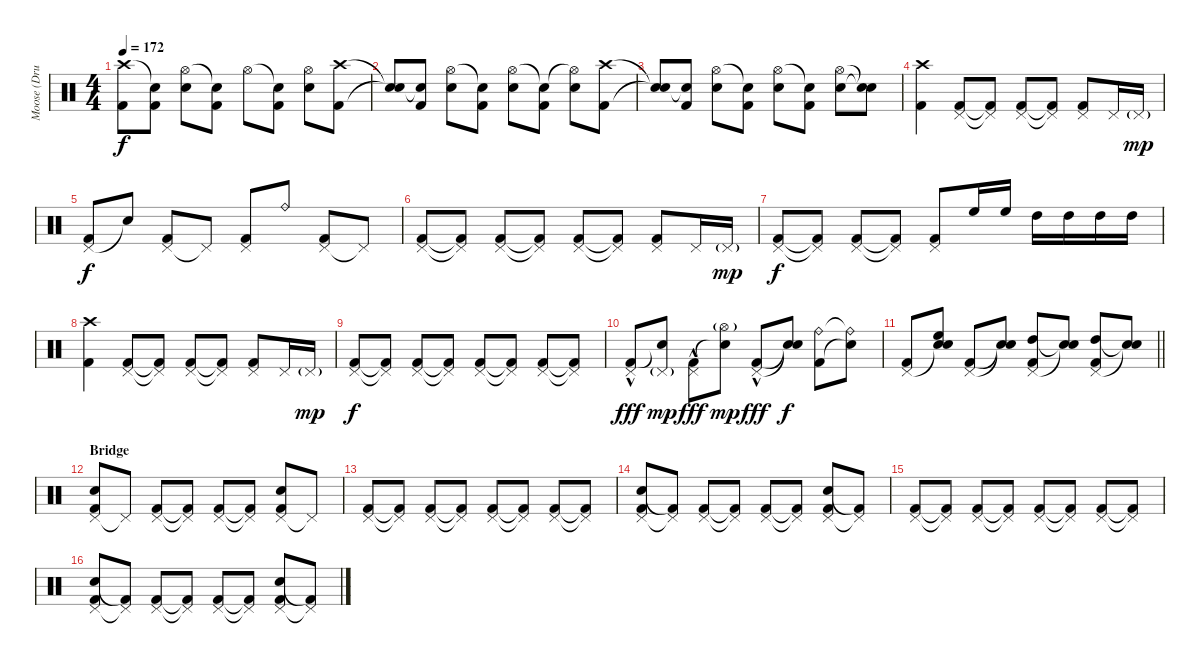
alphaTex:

\track ("Moose (Drums)" "Moose (Dru") {instrument percussion}
\staff {score}
\articulation defaults
\ts (4 4)
\tempo 172
\clef neutral
\ks c
("Crash high (hit)" "Kick (hit) 2").8{dy f} ("Snare (hit)"{t} "Kick (hit) 2").8 ("Hi-Hat (open)" "Electric Snare (hit)").8 ("Snare (hit)"{t} "Kick (hit) 2").8 "Hi-Hat (open)".8 ("Snare (hit)"{t} "Kick (hit) 2").8 ("Hi-Hat (open)" "Electric Snare (hit)").8 ("Crash high (hit)" "Kick (hit) 2").8 |
("Snare (hit)"{t} "Snare (hit)"{t}).8 ("Snare (hit)"{t} "Kick (hit) 2").8 ("Hi-Hat (open)" "Electric Snare (hit)").8 ("Snare (hit)"{t} "Kick (hit) 2").8 ("Hi-Hat (open)" "Electric Snare (hit)").8 ("Snare (hit)"{t} "Kick (hit) 2").8 ("Hi-Hat (open)"{t} "Electric Snare (hit)").8 ("Crash high (hit)" "Kick (hit) 2").8 |
("Snare (hit)"{t} "Snare (hit)"{t}).8 ("Snare (hit)"{t} "Kick (hit) 2").8 ("Hi-Hat (open)" "Electric Snare (hit)").8 ("Snare (hit)"{t} "Kick (hit) 2").8 ("Hi-Hat (open)" "Electric Snare (hit)").8 ("Snare (hit)"{t} "Kick (hit) 2").8 ("Hi-Hat (open)" "Electric Snare (hit)").8 ("Snare (hit)"{t} "Snare (hit)"{t}).8 |
("Crash high (hit)" "Kick (hit) 2").4 ("Pedal Hi-Hat (hit)" "Kick (hit) 2").8 ("Pedal Hi-Hat (hit)"{t} "Kick (hit) 2"{t}).8 ("Pedal Hi-Hat (hit)" "Kick (hit) 2").8 ("Pedal Hi-Hat (hit)"{t} "Kick (hit) 2"{t}).8 ("Pedal Hi-Hat (hit)" "Kick (hit) 2").8 "Pedal Hi-Hat (hit)".16 "Pedal Hi-Hat (hit)"{g}.16{dy mp} |
("Pedal Hi-Hat (hit)" "Kick (hit) 2").8{dy f} "Snare (hit)"{t}.8 ("Pedal Hi-Hat (hit)" "Kick (hit) 2").8 "Pedal Hi-Hat (hit)"{t}.8 ("Pedal Hi-Hat (hit)" "Kick (hit) 2").8 "Ride (bell)".8 ("Pedal Hi-Hat (hit)" "Kick (hit) 2").8 "Pedal Hi-Hat (hit)"{t}.8 |
("Pedal Hi-Hat (hit)" "Kick (hit) 2").8 ("Pedal Hi-Hat (hit)"{t} "Kick (hit) 2"{t}).8 ("Pedal Hi-Hat (hit)" "Kick (hit) 2").8 ("Pedal Hi-Hat (hit)"{t} "Kick (hit) 2"{t}).8 ("Pedal Hi-Hat (hit)" "Kick (hit) 2").8 ("Pedal Hi-Hat (hit)"{t} "Kick (hit) 2"{t}).8 ("Pedal Hi-Hat (hit)" "Kick (hit) 2").8 "Pedal Hi-Hat (hit)".16 "Pedal Hi-Hat (hit)"{g}.16{dy mp} |
("Pedal Hi-Hat (hit)" "Kick (hit) 2").8{dy f} ("Pedal Hi-Hat (hit)"{t} "Kick (hit) 2"{t}).8 ("Pedal Hi-Hat (hit)" "Kick (hit) 2").8 ("Pedal Hi-Hat (hit)"{t} "Kick (hit) 2"{t}).8 ("Pedal Hi-Hat (hit)" "Kick (hit) 2").8 "High Floor Tom (hit)".16 "High Floor Tom (hit)".16 "High Tom (hit)".16 "High Tom (hit)".16 "High Tom (hit)".16 "High Tom (hit)".16 |
("Crash high (hit)" "Kick (hit) 2").4 ("Pedal Hi-Hat (hit)" "Kick (hit) 2").8 ("Pedal Hi-Hat (hit)"{t} "Kick (hit) 2"{t}).8 ("Pedal Hi-Hat (hit)" "Kick (hit) 2").8 ("Pedal Hi-Hat (hit)"{t} "Kick (hit) 2"{t}).8 ("Pedal Hi-Hat (hit)" "Kick (hit) 2").8 "Pedal Hi-Hat (hit)".16 "Pedal Hi-Hat (hit)"{g}.16{dy mp} |
("Pedal Hi-Hat (hit)" "Kick (hit) 2").8{dy f} ("Pedal Hi-Hat (hit)"{t} "Kick (hit) 2"{t}).8 ("Pedal Hi-Hat (hit)" "Kick (hit) 2").8 ("Pedal Hi-Hat (hit)"{t} "Kick (hit) 2"{t}).8 ("Pedal Hi-Hat (hit)" "Kick (hit) 2").8 ("Pedal Hi-Hat (hit)"{t} "Kick (hit) 2"{t}).8 ("Pedal Hi-Hat (hit)" "Kick (hit) 2").8 ("Pedal Hi-Hat (hit)"{t} "Kick (hit) 2"{t}).8 |
("Pedal Hi-Hat (hit)"{hac} "Kick (hit) 2").8{dy fff} ("Pedal Hi-Hat (hit)"{g} "Snare (hit)"{t}).8{dy mp} ("Pedal Hi-Hat (hit)"{hac} "Kick (hit) 2").8{dy fff} ("Hi-Hat (open)"{g} "Snare (hit)"{t}).8{dy mp} ("Pedal Hi-Hat (hit)"{hac} "Kick (hit) 2").8{dy fff} ("Snare (hit)"{t} "Snare (hit)"{t}).8{dy f} ("Ride (bell)" "Kick (hit) 2").8 ("Ride (bell)"{t} "Snare (hit)"{t}).8 |
\barLineRight lightlight
("Pedal Hi-Hat (hit)" "Kick (hit) 2").8 ("Snare (hit)"{t} "High Floor Tom (hit)" "Snare (hit)").8 ("Pedal Hi-Hat (hit)" "Kick (hit) 2").8 ("Snare (hit)"{t} "Snare (hit)"{t}).8 ("Pedal Hi-Hat (hit)" "High Tom (hit)" "Kick (hit) 2").8 ("Snare (hit)"{t} "Snare (hit)"{t}).8 ("Pedal Hi-Hat (hit)" "High Tom (hit)" "Kick (hit) 2").8 ("Snare (hit)"{t} "Snare (hit)"{t}).8 |
\section ("" "Bridge")
("Pedal Hi-Hat (hit)" "Electric Snare (hit)" "Kick (hit) 2").8 "Pedal Hi-Hat (hit)"{t}.8 ("Pedal Hi-Hat (hit)" "Kick (hit) 2").8 ("Pedal Hi-Hat (hit)"{t} "Kick (hit) 2"{t}).8 ("Pedal Hi-Hat (hit)" "Kick (hit) 2").8 ("Pedal Hi-Hat (hit)"{t} "Kick (hit) 2"{t}).8 ("Pedal Hi-Hat (hit)" "Electric Snare (hit)" "Kick (hit) 2").8 "Pedal Hi-Hat (hit)"{t}.8 |
("Pedal Hi-Hat (hit)" "Kick (hit) 2").8 ("Pedal Hi-Hat (hit)"{t} "Kick (hit) 2"{t}).8 ("Pedal Hi-Hat (hit)" "Kick (hit) 2").8 ("Pedal Hi-Hat (hit)"{t} "Kick (hit) 2"{t}).8 ("Pedal Hi-Hat (hit)" "Kick (hit) 2").8 ("Pedal Hi-Hat (hit)"{t} "Kick (hit) 2"{t}).8 ("Pedal Hi-Hat (hit)" "Kick (hit) 2").8 ("Pedal Hi-Hat (hit)"{t} "Kick (hit) 2"{t}).8 |
("Pedal Hi-Hat (hit)" "Electric Snare (hit)" "Kick (hit) 2").8 ("Pedal Hi-Hat (hit)"{t} "Kick (hit) 2"{t}).8 ("Pedal Hi-Hat (hit)" "Kick (hit) 2").8 ("Pedal Hi-Hat (hit)"{t} "Kick (hit) 2"{t}).8 ("Pedal Hi-Hat (hit)" "Kick (hit) 2").8 ("Pedal Hi-Hat (hit)"{t} "Kick (hit) 2"{t}).8 ("Pedal Hi-Hat (hit)" "Electric Snare (hit)" "Kick (hit) 2").8 ("Pedal Hi-Hat (hit)"{t} "Kick (hit) 2"{t}).8 |
("Pedal Hi-Hat (hit)" "Kick (hit) 2").8 ("Pedal Hi-Hat (hit)"{t} "Kick (hit) 2"{t}).8 ("Pedal Hi-Hat (hit)" "Kick (hit) 2").8 ("Pedal Hi-Hat (hit)"{t} "Kick (hit) 2"{t}).8 ("Pedal Hi-Hat (hit)" "Kick (hit) 2").8 ("Pedal Hi-Hat (hit)"{t} "Kick (hit) 2"{t}).8 ("Pedal Hi-Hat (hit)" "Kick (hit) 2").8 ("Pedal Hi-Hat (hit)"{t} "Kick (hit) 2"{t}).8 |
("Pedal Hi-Hat (hit)" "Electric Snare (hit)" "Kick (hit) 2").8 ("Pedal Hi-Hat (hit)"{t} "Kick (hit) 2"{t}).8 ("Pedal Hi-Hat (hit)" "Kick (hit) 2").8 ("Pedal Hi-Hat (hit)"{t} "Kick (hit) 2"{t}).8 ("Pedal Hi-Hat (hit)" "Kick (hit) 2").8 ("Pedal Hi-Hat (hit)"{t} "Kick (hit) 2"{t}).8 ("Pedal Hi-Hat (hit)" "Electric Snare (hit)" "Kick (hit) 2").8 ("Pedal Hi-Hat (hit)"{t} "Kick (hit) 2"{t}).8
